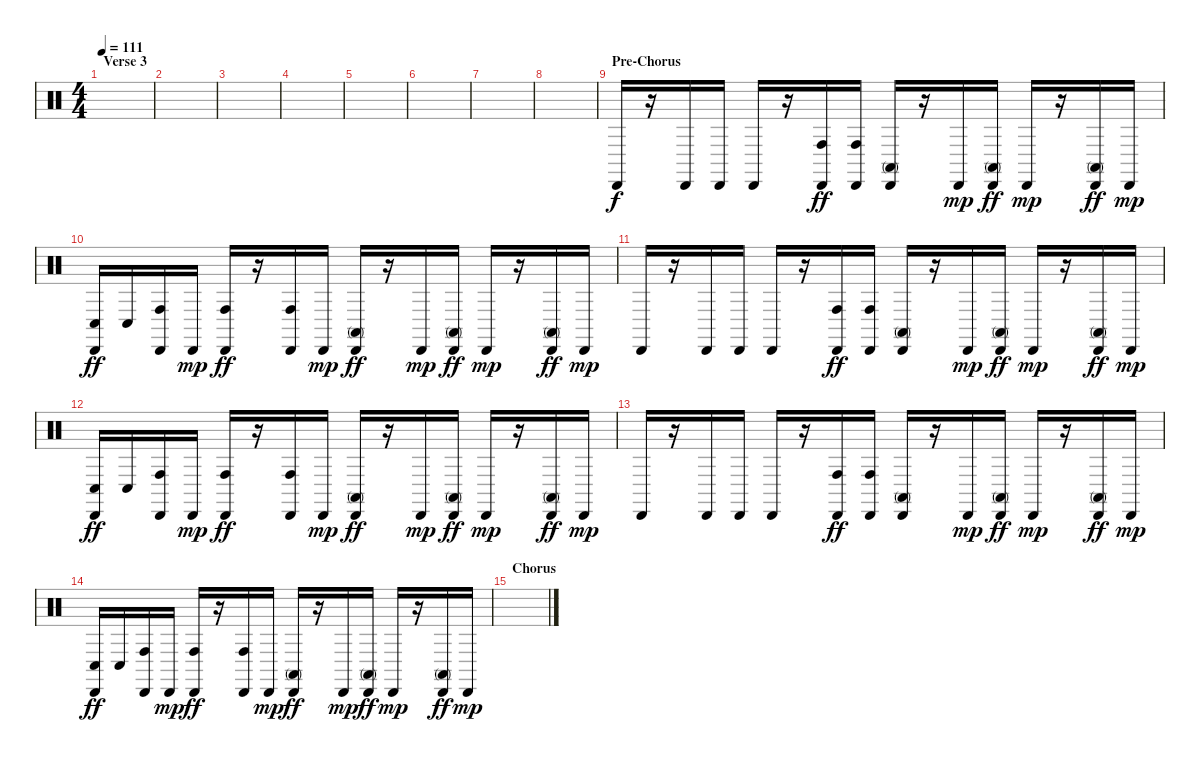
\track "" {instrument percussion}
\staff {score}
\articulation defaults
\ts (4 4)
\section ("" "Verse 3")
\tempo 111
\clef neutral
\ks c
|
|
|
|
|
|
|
|
\section ("" "Pre-Chorus")
"Cabasa (hit)".16 r.16 "Cabasa (hit)".16 "Cabasa (hit)".16 "Cabasa (hit)".16 r.16 ("Cabasa (hit)" "Conga high (hit)").16{dy ff} ("Cabasa (hit)" "Conga high (hit)").16 ("Cabasa (hit)" "Conga high (mute)").16 r.16 "Cabasa (hit)".16{dy mp} ("Cabasa (hit)" "Conga high (mute)").16{dy ff} "Cabasa (hit)".16{dy mp} r.16 ("Cabasa (hit)" "Conga high (mute)").16{dy ff} "Cabasa (hit)".16{dy mp} |
("Cabasa (hit)" "Conga low (hit)").16{dy ff} "Conga low (hit)".16 ("Cabasa (hit)" "Conga high (hit)").16 "Cabasa (hit)".16{dy mp} ("Cabasa (hit)" "Conga high (hit)").16{dy ff} r.16 ("Cabasa (hit)" "Conga high (hit)").16 "Cabasa (hit)".16{dy mp} ("Cabasa (hit)" "Conga high (mute)").16{dy ff} r.16 "Cabasa (hit)".16{dy mp} ("Cabasa (hit)" "Conga high (mute)").16{dy ff} "Cabasa (hit)".16{dy mp} r.16 ("Cabasa (hit)" "Conga high (mute)").16{dy ff} "Cabasa (hit)".16{dy mp} |
"Cabasa (hit)".16 r.16 "Cabasa (hit)".16 "Cabasa (hit)".16 "Cabasa (hit)".16 r.16 ("Cabasa (hit)" "Conga high (hit)").16{dy ff} ("Cabasa (hit)" "Conga high (hit)").16 ("Cabasa (hit)" "Conga high (mute)").16 r.16 "Cabasa (hit)".16{dy mp} ("Cabasa (hit)" "Conga high (mute)").16{dy ff} "Cabasa (hit)".16{dy mp} r.16 ("Cabasa (hit)" "Conga high (mute)").16{dy ff} "Cabasa (hit)".16{dy mp} |
("Cabasa (hit)" "Conga low (hit)").16{dy ff} "Conga low (hit)".16 ("Cabasa (hit)" "Conga high (hit)").16 "Cabasa (hit)".16{dy mp} ("Cabasa (hit)" "Conga high (hit)").16{dy ff} r.16 ("Cabasa (hit)" "Conga high (hit)").16 "Cabasa (hit)".16{dy mp} ("Cabasa (hit)" "Conga high (mute)").16{dy ff} r.16 "Cabasa (hit)".16{dy mp} ("Cabasa (hit)" "Conga high (mute)").16{dy ff} "Cabasa (hit)".16{dy mp} r.16 ("Cabasa (hit)" "Conga high (mute)").16{dy ff} "Cabasa (hit)".16{dy mp} |
"Cabasa (hit)".16 r.16 "Cabasa (hit)".16 "Cabasa (hit)".16 "Cabasa (hit)".16 r.16 ("Cabasa (hit)" "Conga high (hit)").16{dy ff} ("Cabasa (hit)" "Conga high (hit)").16 ("Cabasa (hit)" "Conga high (mute)").16 r.16 "Cabasa (hit)".16{dy mp} ("Cabasa (hit)" "Conga high (mute)").16{dy ff} "Cabasa (hit)".16{dy mp} r.16 ("Cabasa (hit)" "Conga high (mute)").16{dy ff} "Cabasa (hit)".16{dy mp} |
("Cabasa (hit)" "Conga low (hit)").16{dy ff} "Conga low (hit)".16 ("Cabasa (hit)" "Conga high (hit)").16 "Cabasa (hit)".16{dy mp} ("Cabasa (hit)" "Conga high (hit)").16{dy ff} r.16 ("Cabasa (hit)" "Conga high (hit)").16 "Cabasa (hit)".16{dy mp} ("Cabasa (hit)" "Conga high (mute)").16{dy ff} r.16 "Cabasa (hit)".16{dy mp} ("Cabasa (hit)" "Conga high (mute)").16{dy ff} "Cabasa (hit)".16{dy mp} r.16 ("Cabasa (hit)" "Conga high (mute)").16{dy ff} "Cabasa (hit)".16{dy mp} |
\section ("" "Chorus")
